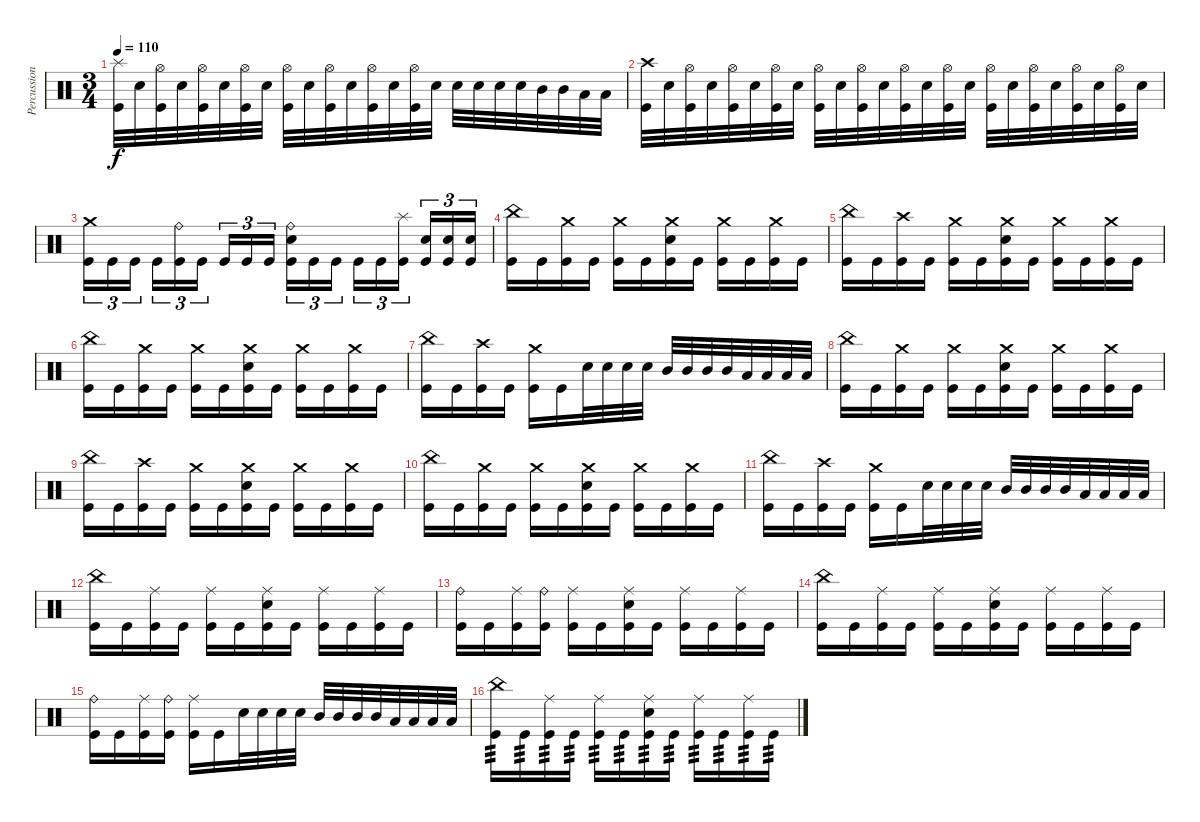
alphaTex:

\track ("Percussion" "Percussion") {instrument percussion}
\staff {score}
\articulation defaults
\ts (3 4)
\tempo 110
\clef neutral
\ks c
("Splash (hit)" "Kick (hit)").32{dy f} "Electric Snare (hit)".32 ("Hi-Hat (open)" "Kick (hit)").32 "Electric Snare (hit)".32 ("Hi-Hat (open)" "Kick (hit)").32 "Electric Snare (hit)".32 ("Hi-Hat (open)" "Kick (hit)").32 "Electric Snare (hit)".32 ("Hi-Hat (open)" "Kick (hit)").32 "Electric Snare (hit)".32 ("Hi-Hat (open)" "Kick (hit)").32 "Electric Snare (hit)".32 ("Hi-Hat (open)" "Kick (hit)").32 "Electric Snare (hit)".32 ("Hi-Hat (open)" "Kick (hit)").32 "Electric Snare (hit)".32 "Electric Snare (hit)".32 "Electric Snare (hit)".32 "Electric Snare (hit)".32 "Electric Snare (hit)".32 "Mid Tom (hit)".32 "Mid Tom (hit)".32 "Low Tom (hit)".32 "Low Tom (hit)".32 |
("Crash high (hit)" "Kick (hit)").32 "Electric Snare (hit)".32 ("Hi-Hat (open)" "Kick (hit)").32 "Electric Snare (hit)".32 ("Hi-Hat (open)" "Kick (hit)").32 "Electric Snare (hit)".32 ("Hi-Hat (open)" "Kick (hit)").32 "Electric Snare (hit)".32 ("Hi-Hat (open)" "Kick (hit)").32 "Electric Snare (hit)".32 ("Hi-Hat (open)" "Kick (hit)").32 "Electric Snare (hit)".32 ("Hi-Hat (open)" "Kick (hit)").32 "Electric Snare (hit)".32 ("Hi-Hat (open)" "Kick (hit)").32 "Electric Snare (hit)".32 ("Hi-Hat (open)" "Kick (hit)").32 "Electric Snare (hit)".32 ("Hi-Hat (open)" "Kick (hit)").32 "Electric Snare (hit)".32 ("Hi-Hat (open)" "Kick (hit)").32 "Electric Snare (hit)".32 ("Hi-Hat (open)" "Kick (hit)").32 "Electric Snare (hit)".32 |
("Crash medium (hit)" "Kick (hit)").16{tu (3 2)} "Kick (hit)".16{tu (3 2)} "Kick (hit)".16{tu (3 2) beam splitsecondary} "Kick (hit)".16{tu (3 2)} ("Ride (bell)" "Kick (hit)").16{tu (3 2)} "Kick (hit)".16{tu (3 2)} "Kick (hit)".16{tu (3 2)} "Kick (hit)".16{tu (3 2)} "Kick (hit)".16{tu (3 2) beam splitsecondary} ("Ride (bell)" "Electric Snare (hit)" "Kick (hit)").16{tu (3 2)} "Kick (hit)".16{tu (3 2)} "Kick (hit)".16{tu (3 2)} "Kick (hit)".16{tu (3 2)} "Kick (hit)".16{tu (3 2)} ("Splash (hit)" "Kick (hit)").16{tu (3 2) beam splitsecondary} ("Electric Snare (hit)" "Kick (hit)").16{tu (3 2)} ("Electric Snare (hit)" "Kick (hit)").16{tu (3 2)} ("Electric Snare (hit)" "Kick (hit)").16{tu (3 2)} |
("China (hit)" "Kick (hit)").16 "Kick (hit)".16 ("Crash medium (hit)" "Kick (hit)").16 "Kick (hit)".16 ("Crash medium (hit)" "Kick (hit)").16 "Kick (hit)".16 ("Crash medium (hit)" "Electric Snare (hit)" "Kick (hit)").16 "Kick (hit)".16 ("Crash medium (hit)" "Kick (hit)").16 "Kick (hit)".16 ("Crash medium (hit)" "Kick (hit)").16 "Kick (hit)".16 |
("China (hit)" "Kick (hit)").16 "Kick (hit)".16 ("Crash high (hit)" "Kick (hit)").16 "Kick (hit)".16 ("Crash medium (hit)" "Kick (hit)").16 "Kick (hit)".16 ("Crash medium (hit)" "Electric Snare (hit)" "Kick (hit)").16 "Kick (hit)".16 ("Crash medium (hit)" "Kick (hit)").16 "Kick (hit)".16 ("Crash medium (hit)" "Kick (hit)").16 "Kick (hit)".16 |
("China (hit)" "Kick (hit)").16 "Kick (hit)".16 ("Crash medium (hit)" "Kick (hit)").16 "Kick (hit)".16 ("Crash medium (hit)" "Kick (hit)").16 "Kick (hit)".16 ("Crash medium (hit)" "Electric Snare (hit)" "Kick (hit)").16 "Kick (hit)".16 ("Crash medium (hit)" "Kick (hit)").16 "Kick (hit)".16 ("Crash medium (hit)" "Kick (hit)").16 "Kick (hit)".16 |
("China (hit)" "Kick (hit)").16 "Kick (hit)".16 ("Crash high (hit)" "Kick (hit)").16 "Kick (hit)".16 ("Crash medium (hit)" "Kick (hit)").16 "Kick (hit)".16 "Electric Snare (hit)".32 "Electric Snare (hit)".32 "Electric Snare (hit)".32 "Electric Snare (hit)".32 "Mid Tom (hit)".32 "Mid Tom (hit)".32 "Mid Tom (hit)".32 "Mid Tom (hit)".32 "Low Tom (hit)".32 "Low Tom (hit)".32 "Low Tom (hit)".32 "Low Tom (hit)".32 |
("China (hit)" "Kick (hit)").16 "Kick (hit)".16 ("Crash medium (hit)" "Kick (hit)").16 "Kick (hit)".16 ("Crash medium (hit)" "Kick (hit)").16 "Kick (hit)".16 ("Crash medium (hit)" "Electric Snare (hit)" "Kick (hit)").16 "Kick (hit)".16 ("Crash medium (hit)" "Kick (hit)").16 "Kick (hit)".16 ("Crash medium (hit)" "Kick (hit)").16 "Kick (hit)".16 |
("China (hit)" "Kick (hit)").16 "Kick (hit)".16 ("Crash high (hit)" "Kick (hit)").16 "Kick (hit)".16 ("Crash medium (hit)" "Kick (hit)").16 "Kick (hit)".16 ("Crash medium (hit)" "Electric Snare (hit)" "Kick (hit)").16 "Kick (hit)".16 ("Crash medium (hit)" "Kick (hit)").16 "Kick (hit)".16 ("Crash medium (hit)" "Kick (hit)").16 "Kick (hit)".16 |
("China (hit)" "Kick (hit)").16 "Kick (hit)".16 ("Crash medium (hit)" "Kick (hit)").16 "Kick (hit)".16 ("Crash medium (hit)" "Kick (hit)").16 "Kick (hit)".16 ("Crash medium (hit)" "Electric Snare (hit)" "Kick (hit)").16 "Kick (hit)".16 ("Crash medium (hit)" "Kick (hit)").16 "Kick (hit)".16 ("Crash medium (hit)" "Kick (hit)").16 "Kick (hit)".16 |
("China (hit)" "Kick (hit)").16 "Kick (hit)".16 ("Crash high (hit)" "Kick (hit)").16 "Kick (hit)".16 ("Crash medium (hit)" "Kick (hit)").16 "Kick (hit)".16 "Electric Snare (hit)".32 "Electric Snare (hit)".32 "Electric Snare (hit)".32 "Electric Snare (hit)".32 "Mid Tom (hit)".32 "Mid Tom (hit)".32 "Mid Tom (hit)".32 "Mid Tom (hit)".32 "Low Tom (hit)".32 "Low Tom (hit)".32 "Low Tom (hit)".32 "Low Tom (hit)".32 |
("China (hit)" "Kick (hit)").16 "Kick (hit)".16 ("Ride (middle)" "Kick (hit)").16 "Kick (hit)".16 ("Ride (middle)" "Kick (hit)").16 "Kick (hit)".16 ("Ride (middle)" "Electric Snare (hit)" "Kick (hit)").16 "Kick (hit)".16 ("Ride (middle)" "Kick (hit)").16 "Kick (hit)".16 ("Ride (middle)" "Kick (hit)").16 "Kick (hit)".16 |
("Ride (bell)" "Kick (hit)").16 "Kick (hit)".16 ("Ride (middle)" "Kick (hit)").16 ("Ride (bell)" "Kick (hit)").16 ("Ride (middle)" "Kick (hit)").16 "Kick (hit)".16 ("Ride (middle)" "Electric Snare (hit)" "Kick (hit)").16 "Kick (hit)".16 ("Ride (middle)" "Kick (hit)").16 "Kick (hit)".16 ("Ride (middle)" "Kick (hit)").16 "Kick (hit)".16 |
("China (hit)" "Kick (hit)").16 "Kick (hit)".16 ("Ride (middle)" "Kick (hit)").16 "Kick (hit)".16 ("Ride (middle)" "Kick (hit)").16 "Kick (hit)".16 ("Ride (middle)" "Electric Snare (hit)" "Kick (hit)").16 "Kick (hit)".16 ("Ride (middle)" "Kick (hit)").16 "Kick (hit)".16 ("Ride (middle)" "Kick (hit)").16 "Kick (hit)".16 |
("Ride (bell)" "Kick (hit)").16 "Kick (hit)".16 ("Ride (middle)" "Kick (hit)").16 ("Ride (bell)" "Kick (hit)").16 ("Ride (middle)" "Kick (hit)").16 "Kick (hit)".16 "Electric Snare (hit)".32 "Electric Snare (hit)".32 "Electric Snare (hit)".32 "Electric Snare (hit)".32 "Mid Tom (hit)".32 "Mid Tom (hit)".32 "Mid Tom (hit)".32 "Mid Tom (hit)".32 "Low Tom (hit)".32 "Low Tom (hit)".32 "Low Tom (hit)".32 "Low Tom (hit)".32 |
("China (hit)" "Kick (hit)").16{tp 3} "Kick (hit)".16{tp 3} ("Ride (middle)" "Kick (hit)").16{tp 3} "Kick (hit)".16{tp 3} ("Ride (middle)" "Kick (hit)").16{tp 3} "Kick (hit)".16{tp 3} ("Ride (middle)" "Electric Snare (hit)" "Kick (hit)").16{tp 3} "Kick (hit)".16{tp 3} ("Ride (middle)" "Kick (hit)").16{tp 3} "Kick (hit)".16{tp 3} ("Ride (middle)" "Kick (hit)").16{tp 3} "Kick (hit)".16{tp 3}
